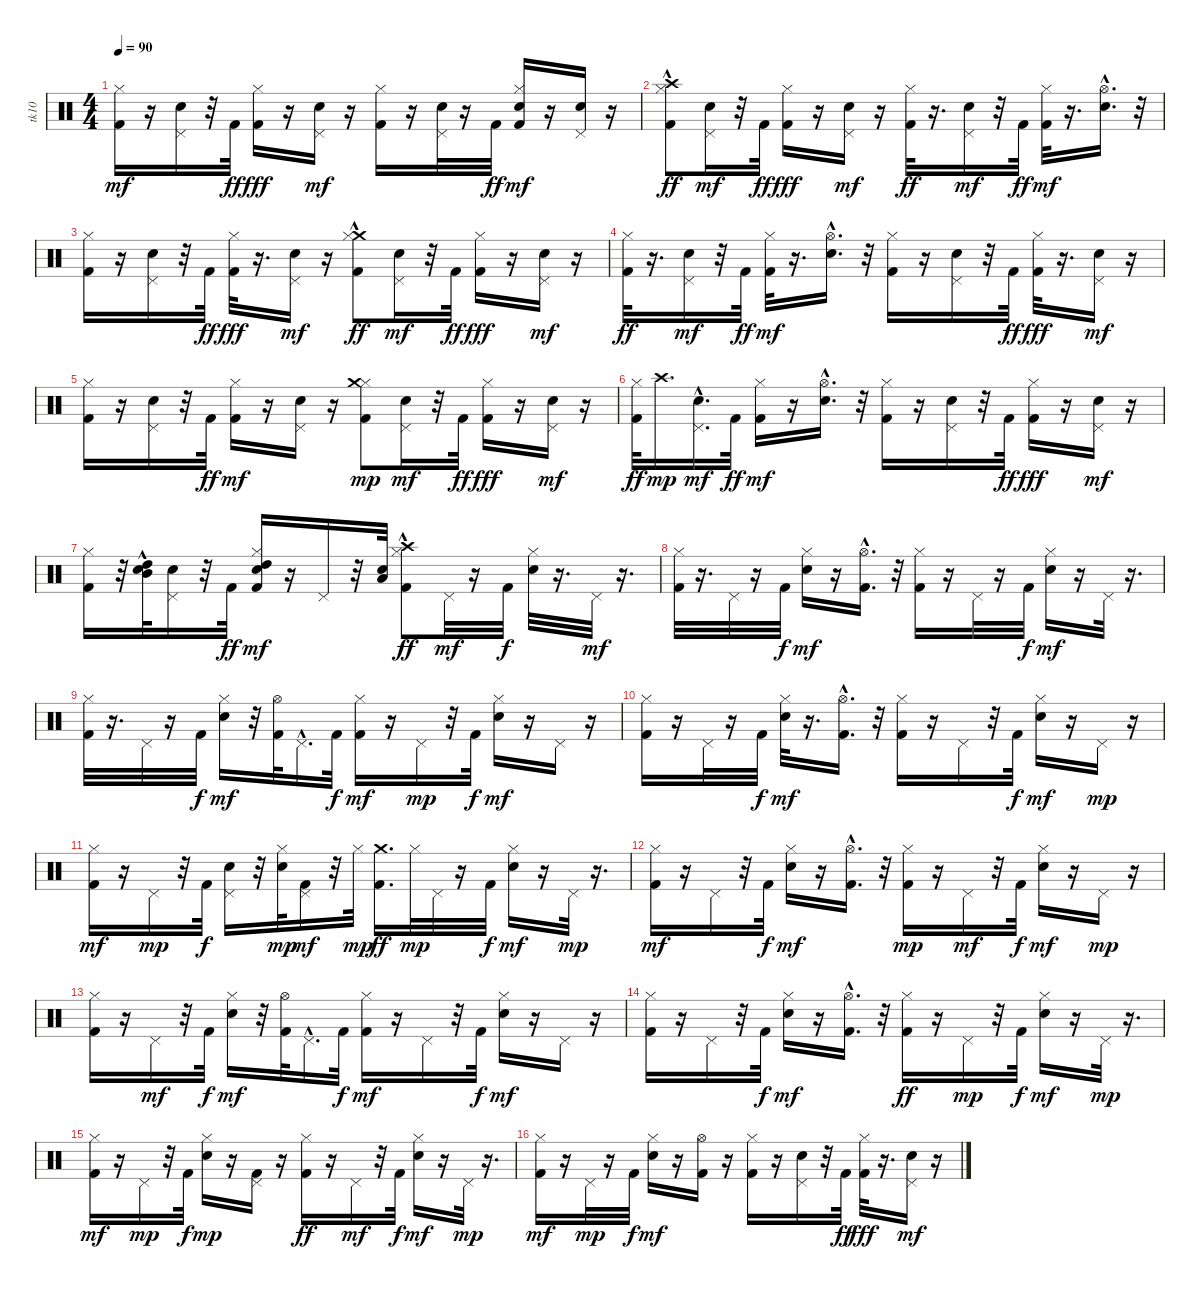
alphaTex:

\track ("tk10" "tk10") {instrument percussion}
\staff {score}
\articulation defaults
\ts (4 4)
\tempo 90
\clef neutral
\ks c
("Kick (hit) 2" "Hi-Hat (closed)").16{dy mf} r.16 ("Pedal Hi-Hat (hit)" "Electric Snare (hit)").16 r.32 "Kick (hit) 2".32{dy ff} ("Hi-Hat (closed)" "Kick (hit) 2").16{dy fff} r.16 ("Electric Snare (hit)" "Pedal Hi-Hat (hit)").16{dy mf} r.16 ("Kick (hit) 2" "Hi-Hat (closed)").16 r.16 ("Pedal Hi-Hat (hit)" "Electric Snare (hit)").32 r.16 "Kick (hit) 2".32{dy ff} ("Kick (hit) 2" "Hi-Hat (closed)" "Electric Snare (hit)").16{dy mf} r.16 ("Pedal Hi-Hat (hit)" "Electric Snare (hit)").16 r.16 |
("Crash high (hit)"{hac} "Hi-Hat (closed)" "Kick (hit) 2").8{dy ff} ("Electric Snare (hit)" "Pedal Hi-Hat (hit)").16{dy mf} r.32 "Kick (hit) 2".32{dy ff} ("Kick (hit) 2" "Hi-Hat (closed)").16{dy fff} r.16 ("Electric Snare (hit)" "Pedal Hi-Hat (hit)").16{dy mf} r.16 ("Kick (hit) 2" "Hi-Hat (closed)").32{dy ff} r.16{d} ("Electric Snare (hit)" "Pedal Hi-Hat (hit)").16{dy mf} r.32 "Kick (hit) 2".32{dy ff} ("Kick (hit) 2" "Hi-Hat (closed)").32{dy mf} r.16{d} ("Electric Snare (hit)" "Hi-Hat (open)"{hac}).16{d} r.32 |
("Kick (hit) 2" "Hi-Hat (closed)").16 r.16 ("Electric Snare (hit)" "Pedal Hi-Hat (hit)").16 r.32 "Kick (hit) 2".32{dy ff} ("Hi-Hat (closed)" "Kick (hit) 2").32{dy fff} r.16{d} ("Electric Snare (hit)" "Pedal Hi-Hat (hit)").16{dy mf} r.16 ("Crash medium (hit)"{hac} "Hi-Hat (closed)" "Kick (hit) 2").8{dy ff} ("Electric Snare (hit)" "Pedal Hi-Hat (hit)").16{dy mf} r.32 "Kick (hit) 2".32{dy ff} ("Kick (hit) 2" "Hi-Hat (closed)").16{dy fff} r.16 ("Electric Snare (hit)" "Pedal Hi-Hat (hit)").16{dy mf} r.16 |
("Kick (hit) 2" "Hi-Hat (closed)").32{dy ff} r.16{d} ("Electric Snare (hit)" "Pedal Hi-Hat (hit)").16{dy mf} r.32 "Kick (hit) 2".32{dy ff} ("Kick (hit) 2" "Hi-Hat (closed)").32{dy mf} r.16{d} ("Electric Snare (hit)" "Hi-Hat (open)"{hac}).16{d} r.32 ("Kick (hit) 2" "Hi-Hat (closed)").16 r.16 ("Electric Snare (hit)" "Pedal Hi-Hat (hit)").16 r.32 "Kick (hit) 2".32{dy ff} ("Hi-Hat (closed)" "Kick (hit) 2").32{dy fff} r.16{d} ("Electric Snare (hit)" "Pedal Hi-Hat (hit)").16{dy mf} r.16 |
("Kick (hit) 2" "Hi-Hat (closed)").16 r.16 ("Electric Snare (hit)" "Pedal Hi-Hat (hit)").16 r.32 "Kick (hit) 2".32{dy ff} ("Kick (hit) 2" "Hi-Hat (closed)").16{dy mf} r.16 ("Electric Snare (hit)" "Pedal Hi-Hat (hit)").16 r.16 ("Kick (hit) 2" "Hi-Hat (closed)" "Crash medium (hit)").8{dy mp} ("Electric Snare (hit)" "Pedal Hi-Hat (hit)").16{dy mf} r.32 "Kick (hit) 2".32{dy ff} ("Hi-Hat (closed)" "Kick (hit) 2").16{dy fff} r.16 ("Electric Snare (hit)" "Pedal Hi-Hat (hit)").16{dy mf} r.16 |
("Hi-Hat (closed)" "Kick (hit) 2").32{dy ff} "Crash high (hit)".16{d dy mp} ("Electric Snare (hit)"{hac} "Pedal Hi-Hat (hit)").16{d dy mf} "Kick (hit) 2".32{dy ff} ("Kick (hit) 2" "Hi-Hat (closed)").16{dy mf} r.16 ("Electric Snare (hit)"{hac} "Hi-Hat (open)"{hac}).16{d} r.32 ("Kick (hit) 2" "Hi-Hat (closed)").16 r.16 ("Pedal Hi-Hat (hit)" "Electric Snare (hit)").16 r.32 "Kick (hit) 2".32{dy ff} ("Hi-Hat (closed)" "Kick (hit) 2").16{dy fff} r.16 ("Electric Snare (hit)" "Pedal Hi-Hat (hit)").16{dy mf} r.16 |
("Kick (hit) 2" "Hi-Hat (closed)").16 r.32 ("High Tom (hit)" "Mid Tom (hit)"{hac} "Electric Snare (hit)").32 ("Electric Snare (hit)" "Pedal Hi-Hat (hit)").16 r.32 "Kick (hit) 2".32{dy ff} ("Kick (hit) 2" "Electric Snare (hit)" "Hi-Hat (closed)" "High Tom (hit)").16{dy mf} r.16 "Pedal Hi-Hat (hit)".16 r.32 ("Low Tom (hit)" "Electric Snare (hit)").32 ("Crash high (hit)"{hac} "Kick (hit) 2" "Hi-Hat (closed)").8{dy ff} "Pedal Hi-Hat (hit)".32{dy mf} r.16 "Kick (hit) 2".32{dy f} ("Electric Snare (hit)" "Hi-Hat (closed)").32 r.16{d} "Pedal Hi-Hat (hit)".32{dy mf} r.16{d} |
("Kick (hit) 2" "Hi-Hat (closed)").32 r.16{d} "Pedal Hi-Hat (hit)".32 r.16 "Kick (hit) 2".32{dy f} ("Electric Snare (hit)" "Hi-Hat (closed)").16{dy mf} r.16 ("Kick (hit) 2" "Hi-Hat (open)"{hac}).16{d} r.32 ("Hi-Hat (closed)" "Kick (hit) 2").16 r.16 "Pedal Hi-Hat (hit)".32 r.16 "Kick (hit) 2".32{dy f} ("Electric Snare (hit)" "Hi-Hat (closed)").16{dy mf} r.16 "Pedal Hi-Hat (hit)".32 r.16{d} |
("Kick (hit) 2" "Hi-Hat (closed)").32 r.16{d} "Pedal Hi-Hat (hit)".32 r.16 "Kick (hit) 2".32{dy f} ("Electric Snare (hit)" "Hi-Hat (closed)").16{dy mf} r.32 ("Kick (hit) 2" "Hi-Hat (open)").32 "Pedal Hi-Hat (hit)"{hac}.16{d} "Kick (hit) 2".32{dy f} ("Kick (hit) 2" "Hi-Hat (closed)").16{dy mf} r.16 "Pedal Hi-Hat (hit)".16{dy mp} r.32 "Kick (hit) 2".32{dy f} ("Electric Snare (hit)" "Hi-Hat (closed)").16{dy mf} r.16 "Pedal Hi-Hat (hit)".16 r.16 |
("Hi-Hat (closed)" "Kick (hit) 2").16 r.16 "Pedal Hi-Hat (hit)".32 r.16 "Kick (hit) 2".32{dy f} ("Electric Snare (hit)" "Hi-Hat (closed)").32{dy mf} r.16{d} ("Hi-Hat (open)"{hac} "Kick (hit) 2").16{d} r.32 ("Hi-Hat (closed)" "Kick (hit) 2").16 r.16 "Pedal Hi-Hat (hit)".16 r.32 "Kick (hit) 2".32{dy f} ("Electric Snare (hit)" "Hi-Hat (closed)").16{dy mf} r.16 "Pedal Hi-Hat (hit)".16{dy mp} r.16 |
("Kick (hit) 2" "Hi-Hat (closed)").16{dy mf} r.16 "Pedal Hi-Hat (hit)".16{dy mp} r.32 "Kick (hit) 2".32{dy f} ("Electric Snare (hit)" "Pedal Hi-Hat (hit)").16 r.32 ("Electric Snare (hit)" "Hi-Hat (closed)").32{dy mp} ("Kick (hit) 2" "Pedal Hi-Hat (hit)").16{dy mf} r.32 "Hi-Hat (closed)".32{dy mp} ("Crash medium (hit)" "Kick (hit) 2").16{d dy ff} "Hi-Hat (closed)".32{dy mp} "Pedal Hi-Hat (hit)".32 r.16 "Kick (hit) 2".32{dy f} ("Hi-Hat (closed)" "Electric Snare (hit)").16{dy mf} r.16 "Pedal Hi-Hat (hit)".32{dy mp} r.16{d} |
("Hi-Hat (closed)" "Kick (hit) 2").16{dy mf} r.16 "Pedal Hi-Hat (hit)".16 r.32 "Kick (hit) 2".32{dy f} ("Hi-Hat (closed)" "Electric Snare (hit)").16{dy mf} r.16 ("Hi-Hat (open)"{hac} "Kick (hit) 2").16{d} r.32 ("Hi-Hat (closed)" "Kick (hit) 2").16{dy mp} r.16 "Pedal Hi-Hat (hit)".16{dy mf} r.32 "Kick (hit) 2".32{dy f} ("Hi-Hat (closed)" "Electric Snare (hit)").16{dy mf} r.16 "Pedal Hi-Hat (hit)".16{dy mp} r.16 |
("Kick (hit) 2" "Hi-Hat (closed)").16 r.16 "Pedal Hi-Hat (hit)".16{dy mf} r.32 "Kick (hit) 2".32{dy f} ("Electric Snare (hit)" "Hi-Hat (closed)").16{dy mf} r.32 ("Hi-Hat (open)" "Kick (hit) 2").32 "Pedal Hi-Hat (hit)"{hac}.16{d} "Kick (hit) 2".32{dy f} ("Kick (hit) 2" "Hi-Hat (closed)").16{dy mf} r.16 "Pedal Hi-Hat (hit)".16 r.32 "Kick (hit) 2".32{dy f} ("Hi-Hat (closed)" "Electric Snare (hit)").16{dy mf} r.16 "Pedal Hi-Hat (hit)".16 r.16 |
("Hi-Hat (closed)" "Kick (hit) 2").16 r.16 "Pedal Hi-Hat (hit)".16 r.32 "Kick (hit) 2".32{dy f} ("Hi-Hat (closed)" "Electric Snare (hit)").16{dy mf} r.16 ("Kick (hit) 2" "Hi-Hat (open)"{hac}).16{d} r.32 ("Hi-Hat (closed)" "Kick (hit) 2").16{dy ff} r.16 "Pedal Hi-Hat (hit)".16{dy mp} r.32 "Kick (hit) 2".32{dy f} ("Hi-Hat (closed)" "Electric Snare (hit)").16{dy mf} r.16 "Pedal Hi-Hat (hit)".32{dy mp} r.16{d} |
("Hi-Hat (closed)" "Kick (hit) 2").16{dy mf} r.16 "Pedal Hi-Hat (hit)".16{dy mp} r.32 "Kick (hit) 2".32{dy f} ("Hi-Hat (closed)" "Electric Snare (hit)").16{dy mp} r.16 ("Kick (hit) 2" "Pedal Hi-Hat (hit)").16 r.16 ("Hi-Hat (closed)" "Kick (hit) 2").16{dy ff} r.16 "Pedal Hi-Hat (hit)".16{dy mf} r.32 "Kick (hit) 2".32{dy f} ("Hi-Hat (closed)" "Electric Snare (hit)").16{dy mf} r.16 "Pedal Hi-Hat (hit)".32{dy mp} r.16{d} |
("Hi-Hat (closed)" "Kick (hit) 2").16{dy mf} r.16 "Pedal Hi-Hat (hit)".32{dy mp} r.16 "Kick (hit) 2".32{dy f} ("Hi-Hat (closed)" "Electric Snare (hit)").16{dy mf} r.16 ("Hi-Hat (open)" "Kick (hit) 2").16 r.16 ("Kick (hit) 2" "Hi-Hat (closed)").16 r.16 ("Electric Snare (hit)" "Pedal Hi-Hat (hit)").16 r.32 "Kick (hit) 2".32{dy ff} ("Hi-Hat (closed)" "Kick (hit) 2").32{dy fff} r.16{d} ("Electric Snare (hit)" "Pedal Hi-Hat (hit)").16{dy mf} r.16
